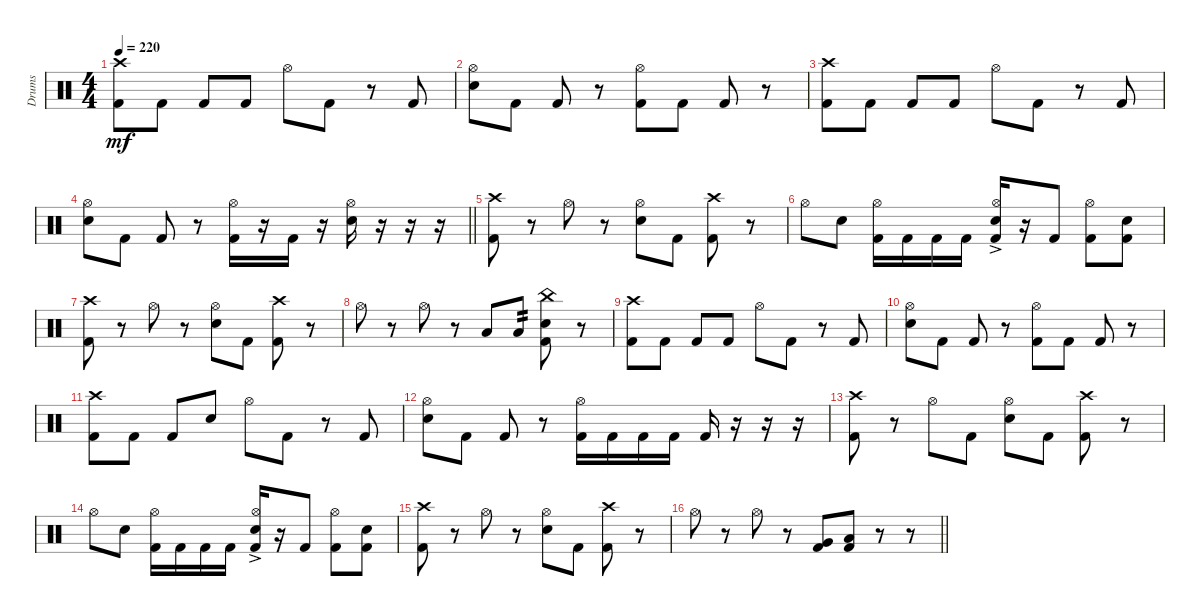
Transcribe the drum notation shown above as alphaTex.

\track ("Drums" "Drums") {instrument percussion}
\staff {score}
\articulation defaults
\ts (4 4)
\tempo 220
\clef neutral
\ks c
("Crash high (hit)" "Kick (hit) 2").8{dy mf} "Kick (hit) 2".8 "Kick (hit) 2".8 "Kick (hit) 2".8 "Hi-Hat (open)".8 "Kick (hit) 2".8 r.8 "Kick (hit) 2".8 |
("Electric Snare (hit)" "Hi-Hat (open)").8 "Kick (hit) 2".8 "Kick (hit) 2".8 r.8 ("Kick (hit) 2" "Hi-Hat (open)").8 "Kick (hit) 2".8 "Kick (hit) 2".8 r.8 |
("Kick (hit) 2" "Crash high (hit)").8 "Kick (hit) 2".8 "Kick (hit) 2".8 "Kick (hit) 2".8 "Hi-Hat (open)".8 "Kick (hit) 2".8 r.8 "Kick (hit) 2".8 |
\barLineRight lightlight
("Electric Snare (hit)" "Hi-Hat (open)").8 "Kick (hit) 2".8 "Kick (hit) 2".8 r.8 ("Kick (hit) 2" "Hi-Hat (open)").16 r.16 "Kick (hit) 2".16 r.16 ("Electric Snare (hit)" "Hi-Hat (open)").16 r.16 r.16 r.16 |
("Kick (hit) 2" "Crash high (hit)").8 r.8 "Hi-Hat (open)".8 r.8 ("Electric Snare (hit)" "Hi-Hat (open)").8 "Kick (hit) 2".8 ("Kick (hit) 2" "Crash high (hit)").8 r.8 |
"Hi-Hat (open)".8 "Electric Snare (hit)".8 ("Kick (hit) 2" "Hi-Hat (open)").16 "Kick (hit) 2".16 "Kick (hit) 2".16 "Kick (hit) 2".16 ("Kick (hit) 2" "Electric Snare (hit)"{ac} "Hi-Hat (open)").16 r.16 "Kick (hit) 2".8 ("Kick (hit) 2" "Hi-Hat (open)").8 ("Kick (hit) 2" "Electric Snare (hit)").8 |
("Kick (hit) 2" "Crash high (hit)").8 r.8 "Hi-Hat (open)".8 r.8 ("Electric Snare (hit)" "Hi-Hat (open)").8 "Kick (hit) 2".8 ("Kick (hit) 2" "Crash high (hit)").8 r.8 |
"Hi-Hat (open)".8 r.8 "Hi-Hat (open)".8 r.8 "Low Tom (hit)".8 "Low Floor Tom (hit)".8{tp 2} ("Electric Snare (hit)" "Kick (hit) 2" "China (hit)").8 r.8 |
("Crash high (hit)" "Kick (hit) 2").8 "Kick (hit) 2".8 "Kick (hit) 2".8 "Kick (hit) 2".8 "Hi-Hat (open)".8 "Kick (hit) 2".8 r.8 "Kick (hit) 2".8 |
("Electric Snare (hit)" "Hi-Hat (open)").8 "Kick (hit) 2".8 "Kick (hit) 2".8 r.8 ("Kick (hit) 2" "Hi-Hat (open)").8 "Kick (hit) 2".8 "Kick (hit) 2".8 r.8 |
("Crash high (hit)" "Kick (hit) 2").8 "Kick (hit) 2".8 "Kick (hit) 2".8 "Electric Snare (hit)".8 "Hi-Hat (open)".8 "Kick (hit) 2".8 r.8 "Kick (hit) 2".8 |
("Electric Snare (hit)" "Hi-Hat (open)").8 "Kick (hit) 2".8 "Kick (hit) 2".8 r.8 ("Kick (hit) 2" "Hi-Hat (open)").16 "Kick (hit) 2".16 "Kick (hit) 2".16 "Kick (hit) 2".16 "Kick (hit) 2".16 r.16 r.16 r.16 |
("Kick (hit) 2" "Crash high (hit)").8 r.8 "Hi-Hat (open)".8 "Kick (hit) 2".8 ("Electric Snare (hit)" "Hi-Hat (open)").8 "Kick (hit) 2".8 ("Kick (hit) 2" "Crash high (hit)").8 r.8 |
"Hi-Hat (open)".8 "Electric Snare (hit)".8 ("Kick (hit) 2" "Hi-Hat (open)").16 "Kick (hit) 2".16 "Kick (hit) 2".16 "Kick (hit) 2".16 ("Kick (hit) 2" "Electric Snare (hit)"{ac} "Hi-Hat (open)").16 r.16 "Kick (hit) 2".8 ("Kick (hit) 2" "Hi-Hat (open)").8 ("Kick (hit) 2" "Electric Snare (hit)").8 |
("Kick (hit) 2" "Crash high (hit)").8 r.8 "Hi-Hat (open)".8 r.8 ("Electric Snare (hit)" "Hi-Hat (open)").8 "Kick (hit) 2".8 ("Kick (hit) 2" "Crash high (hit)").8 r.8 |
\barLineRight lightlight "Hi-Hat (open)".8
r.8 "Hi-Hat (open)".8 r.8 ("Kick (hit) 2" "Very Low Tom (hit)").8 ("Kick (hit) 2" "Low Floor Tom (hit)").8 r.8 r.8
